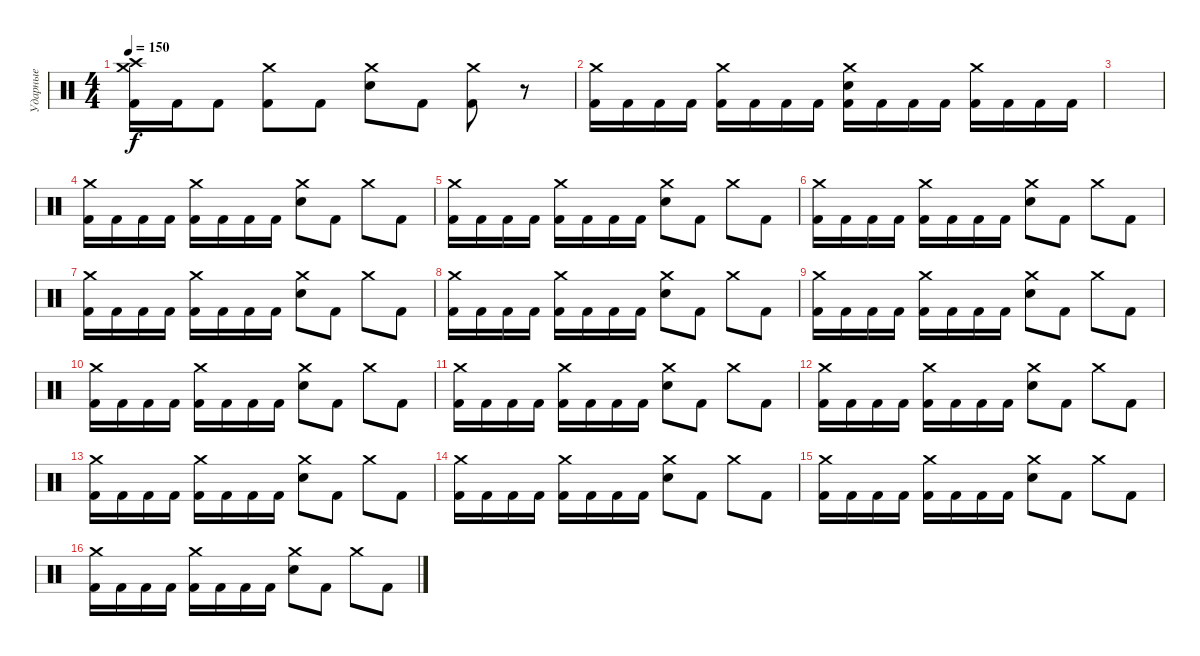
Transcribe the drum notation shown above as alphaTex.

\track ("Ударные" "Ударные") {instrument percussion}
\staff {score}
\articulation defaults
\ts (4 4)
\tempo 150
\clef neutral
\ks c
("Crash medium (hit)" "Crash high (hit)" "Kick (hit) 2").16{dy f} "Kick (hit) 2".16 "Kick (hit) 2".8 ("Crash medium (hit)" "Kick (hit) 2").8 "Kick (hit) 2".8 ("Crash medium (hit)" "Electric Snare (hit)").8 "Kick (hit) 2".8 ("Crash medium (hit)" "Kick (hit) 2").8 r.8 |
("Crash medium (hit)" "Kick (hit) 2").16 "Kick (hit) 2".16 "Kick (hit) 2".16 "Kick (hit) 2".16 ("Crash medium (hit)" "Kick (hit) 2").16 "Kick (hit) 2".16 "Kick (hit) 2".16 "Kick (hit) 2".16 ("Crash medium (hit)" "Electric Snare (hit)" "Kick (hit) 2").16 "Kick (hit) 2".16 "Kick (hit) 2".16 "Kick (hit) 2".16 ("Crash medium (hit)" "Kick (hit) 2").16 "Kick (hit) 2".16 "Kick (hit) 2".16 "Kick (hit) 2".16 |
|
("Crash medium (hit)" "Kick (hit) 2").16 "Kick (hit) 2".16 "Kick (hit) 2".16 "Kick (hit) 2".16 ("Crash medium (hit)" "Kick (hit) 2").16 "Kick (hit) 2".16 "Kick (hit) 2".16 "Kick (hit) 2".16 ("Crash medium (hit)" "Electric Snare (hit)").8 "Kick (hit) 2".8 "Crash medium (hit)".8 "Kick (hit) 2".8 |
("Crash medium (hit)" "Kick (hit) 2").16 "Kick (hit) 2".16 "Kick (hit) 2".16 "Kick (hit) 2".16 ("Crash medium (hit)" "Kick (hit) 2").16 "Kick (hit) 2".16 "Kick (hit) 2".16 "Kick (hit) 2".16 ("Crash medium (hit)" "Electric Snare (hit)").8 "Kick (hit) 2".8 "Crash medium (hit)".8 "Kick (hit) 2".8 |
("Crash medium (hit)" "Kick (hit) 2").16 "Kick (hit) 2".16 "Kick (hit) 2".16 "Kick (hit) 2".16 ("Crash medium (hit)" "Kick (hit) 2").16 "Kick (hit) 2".16 "Kick (hit) 2".16 "Kick (hit) 2".16 ("Crash medium (hit)" "Electric Snare (hit)").8 "Kick (hit) 2".8 "Crash medium (hit)".8 "Kick (hit) 2".8 |
("Crash medium (hit)" "Kick (hit) 2").16 "Kick (hit) 2".16 "Kick (hit) 2".16 "Kick (hit) 2".16 ("Crash medium (hit)" "Kick (hit) 2").16 "Kick (hit) 2".16 "Kick (hit) 2".16 "Kick (hit) 2".16 ("Crash medium (hit)" "Electric Snare (hit)").8 "Kick (hit) 2".8 "Crash medium (hit)".8 "Kick (hit) 2".8 |
("Crash medium (hit)" "Kick (hit) 2").16 "Kick (hit) 2".16 "Kick (hit) 2".16 "Kick (hit) 2".16 ("Crash medium (hit)" "Kick (hit) 2").16 "Kick (hit) 2".16 "Kick (hit) 2".16 "Kick (hit) 2".16 ("Crash medium (hit)" "Electric Snare (hit)").8 "Kick (hit) 2".8 "Crash medium (hit)".8 "Kick (hit) 2".8 |
("Crash medium (hit)" "Kick (hit) 2").16 "Kick (hit) 2".16 "Kick (hit) 2".16 "Kick (hit) 2".16 ("Crash medium (hit)" "Kick (hit) 2").16 "Kick (hit) 2".16 "Kick (hit) 2".16 "Kick (hit) 2".16 ("Crash medium (hit)" "Electric Snare (hit)").8 "Kick (hit) 2".8 "Crash medium (hit)".8 "Kick (hit) 2".8 |
("Crash medium (hit)" "Kick (hit) 2").16 "Kick (hit) 2".16 "Kick (hit) 2".16 "Kick (hit) 2".16 ("Crash medium (hit)" "Kick (hit) 2").16 "Kick (hit) 2".16 "Kick (hit) 2".16 "Kick (hit) 2".16 ("Crash medium (hit)" "Electric Snare (hit)").8 "Kick (hit) 2".8 "Crash medium (hit)".8 "Kick (hit) 2".8 |
("Crash medium (hit)" "Kick (hit) 2").16 "Kick (hit) 2".16 "Kick (hit) 2".16 "Kick (hit) 2".16 ("Crash medium (hit)" "Kick (hit) 2").16 "Kick (hit) 2".16 "Kick (hit) 2".16 "Kick (hit) 2".16 ("Crash medium (hit)" "Electric Snare (hit)").8 "Kick (hit) 2".8 "Crash medium (hit)".8 "Kick (hit) 2".8 |
("Crash medium (hit)" "Kick (hit) 2").16 "Kick (hit) 2".16 "Kick (hit) 2".16 "Kick (hit) 2".16 ("Crash medium (hit)" "Kick (hit) 2").16 "Kick (hit) 2".16 "Kick (hit) 2".16 "Kick (hit) 2".16 ("Crash medium (hit)" "Electric Snare (hit)").8 "Kick (hit) 2".8 "Crash medium (hit)".8 "Kick (hit) 2".8 |
("Crash medium (hit)" "Kick (hit) 2").16 "Kick (hit) 2".16 "Kick (hit) 2".16 "Kick (hit) 2".16 ("Crash medium (hit)" "Kick (hit) 2").16 "Kick (hit) 2".16 "Kick (hit) 2".16 "Kick (hit) 2".16 ("Crash medium (hit)" "Electric Snare (hit)").8 "Kick (hit) 2".8 "Crash medium (hit)".8 "Kick (hit) 2".8 |
("Crash medium (hit)" "Kick (hit) 2").16 "Kick (hit) 2".16 "Kick (hit) 2".16 "Kick (hit) 2".16 ("Crash medium (hit)" "Kick (hit) 2").16 "Kick (hit) 2".16 "Kick (hit) 2".16 "Kick (hit) 2".16 ("Crash medium (hit)" "Electric Snare (hit)").8 "Kick (hit) 2".8 "Crash medium (hit)".8 "Kick (hit) 2".8 |
("Crash medium (hit)" "Kick (hit) 2").16 "Kick (hit) 2".16 "Kick (hit) 2".16 "Kick (hit) 2".16 ("Crash medium (hit)" "Kick (hit) 2").16 "Kick (hit) 2".16 "Kick (hit) 2".16 "Kick (hit) 2".16 ("Crash medium (hit)" "Electric Snare (hit)").8 "Kick (hit) 2".8 "Crash medium (hit)".8 "Kick (hit) 2".8 |
("Crash medium (hit)" "Kick (hit) 2").16 "Kick (hit) 2".16 "Kick (hit) 2".16 "Kick (hit) 2".16 ("Crash medium (hit)" "Kick (hit) 2").16 "Kick (hit) 2".16 "Kick (hit) 2".16 "Kick (hit) 2".16 ("Crash medium (hit)" "Electric Snare (hit)").8 "Kick (hit) 2".8 "Crash medium (hit)".8 "Kick (hit) 2".8
